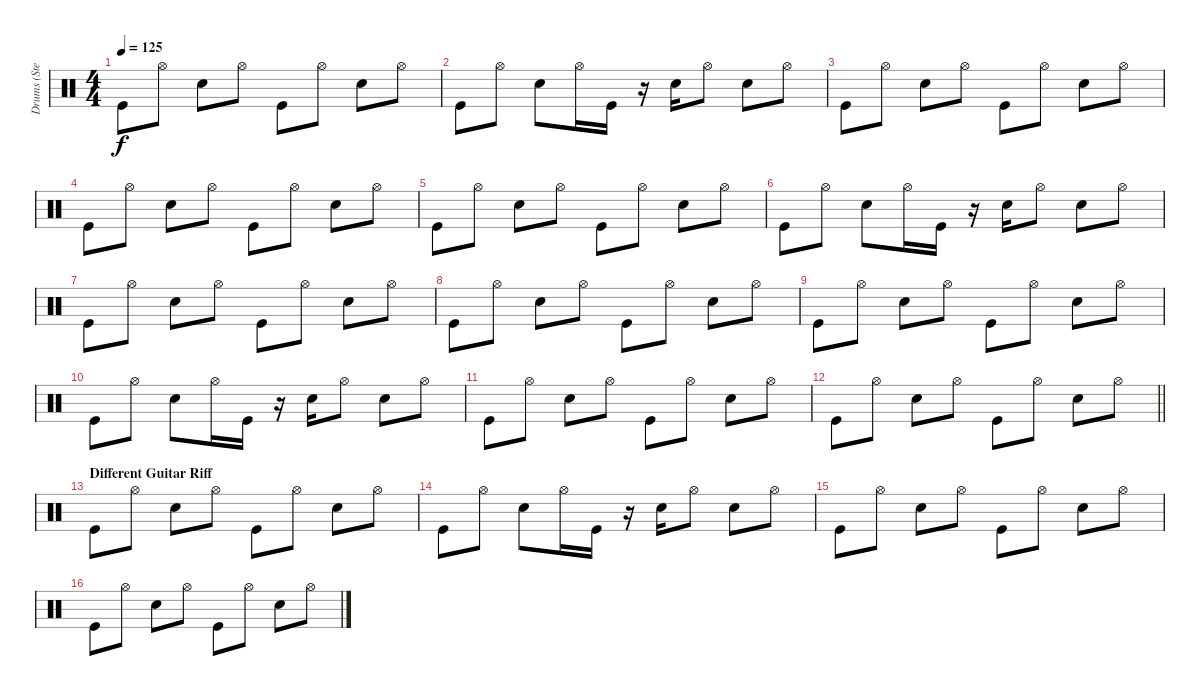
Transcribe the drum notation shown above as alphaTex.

\track ("Drums (Stephen Morris)" "Drums (Ste") {instrument percussion}
\staff {score}
\articulation defaults
\ts (4 4)
\tempo 125
\clef neutral
\ks c "Kick (hit)".8{dy f} "Hi-Hat (open)".8 "Electric Snare (hit)".8 "Hi-Hat (open)".8 "Kick (hit)".8 "Hi-Hat (open)".8 "Electric Snare (hit)".8 "Hi-Hat (open)".8
|
"Kick (hit)".8 "Hi-Hat (open)".8 "Electric Snare (hit)".8 "Hi-Hat (open)".16 "Kick (hit)".16 r.16 "Electric Snare (hit)".16 "Hi-Hat (open)".8 "Electric Snare (hit)".8 "Hi-Hat (open)".8 |
"Kick (hit)".8 "Hi-Hat (open)".8 "Electric Snare (hit)".8 "Hi-Hat (open)".8 "Kick (hit)".8 "Hi-Hat (open)".8 "Electric Snare (hit)".8 "Hi-Hat (open)".8 |
"Kick (hit)".8 "Hi-Hat (open)".8 "Electric Snare (hit)".8 "Hi-Hat (open)".8 "Kick (hit)".8 "Hi-Hat (open)".8 "Electric Snare (hit)".8 "Hi-Hat (open)".8 |
"Kick (hit)".8 "Hi-Hat (open)".8 "Electric Snare (hit)".8 "Hi-Hat (open)".8 "Kick (hit)".8 "Hi-Hat (open)".8 "Electric Snare (hit)".8 "Hi-Hat (open)".8 |
"Kick (hit)".8 "Hi-Hat (open)".8 "Electric Snare (hit)".8 "Hi-Hat (open)".16 "Kick (hit)".16 r.16 "Electric Snare (hit)".16 "Hi-Hat (open)".8 "Electric Snare (hit)".8 "Hi-Hat (open)".8 |
"Kick (hit)".8 "Hi-Hat (open)".8 "Electric Snare (hit)".8 "Hi-Hat (open)".8 "Kick (hit)".8 "Hi-Hat (open)".8 "Electric Snare (hit)".8 "Hi-Hat (open)".8 |
"Kick (hit)".8 "Hi-Hat (open)".8 "Electric Snare (hit)".8 "Hi-Hat (open)".8 "Kick (hit)".8 "Hi-Hat (open)".8 "Electric Snare (hit)".8 "Hi-Hat (open)".8 |
"Kick (hit)".8 "Hi-Hat (open)".8 "Electric Snare (hit)".8 "Hi-Hat (open)".8 "Kick (hit)".8 "Hi-Hat (open)".8 "Electric Snare (hit)".8 "Hi-Hat (open)".8 |
"Kick (hit)".8 "Hi-Hat (open)".8 "Electric Snare (hit)".8 "Hi-Hat (open)".16 "Kick (hit)".16 r.16 "Electric Snare (hit)".16 "Hi-Hat (open)".8 "Electric Snare (hit)".8 "Hi-Hat (open)".8 |
"Kick (hit)".8 "Hi-Hat (open)".8 "Electric Snare (hit)".8 "Hi-Hat (open)".8 "Kick (hit)".8 "Hi-Hat (open)".8 "Electric Snare (hit)".8 "Hi-Hat (open)".8 |
\barLineRight lightlight "Kick (hit)".8 "Hi-Hat (open)".8 "Electric Snare (hit)".8 "Hi-Hat (open)".8 "Kick (hit)".8 "Hi-Hat (open)".8 "Electric Snare (hit)".8 "Hi-Hat (open)".8
|
\section ("" "Different Guitar Riff")
"Kick (hit)".8 "Hi-Hat (open)".8 "Electric Snare (hit)".8 "Hi-Hat (open)".8 "Kick (hit)".8 "Hi-Hat (open)".8 "Electric Snare (hit)".8 "Hi-Hat (open)".8 |
"Kick (hit)".8 "Hi-Hat (open)".8 "Electric Snare (hit)".8 "Hi-Hat (open)".16 "Kick (hit)".16 r.16 "Electric Snare (hit)".16 "Hi-Hat (open)".8 "Electric Snare (hit)".8 "Hi-Hat (open)".8 |
"Kick (hit)".8 "Hi-Hat (open)".8 "Electric Snare (hit)".8 "Hi-Hat (open)".8 "Kick (hit)".8 "Hi-Hat (open)".8 "Electric Snare (hit)".8 "Hi-Hat (open)".8 |
"Kick (hit)".8 "Hi-Hat (open)".8 "Electric Snare (hit)".8 "Hi-Hat (open)".8 "Kick (hit)".8 "Hi-Hat (open)".8 "Electric Snare (hit)".8 "Hi-Hat (open)".8
